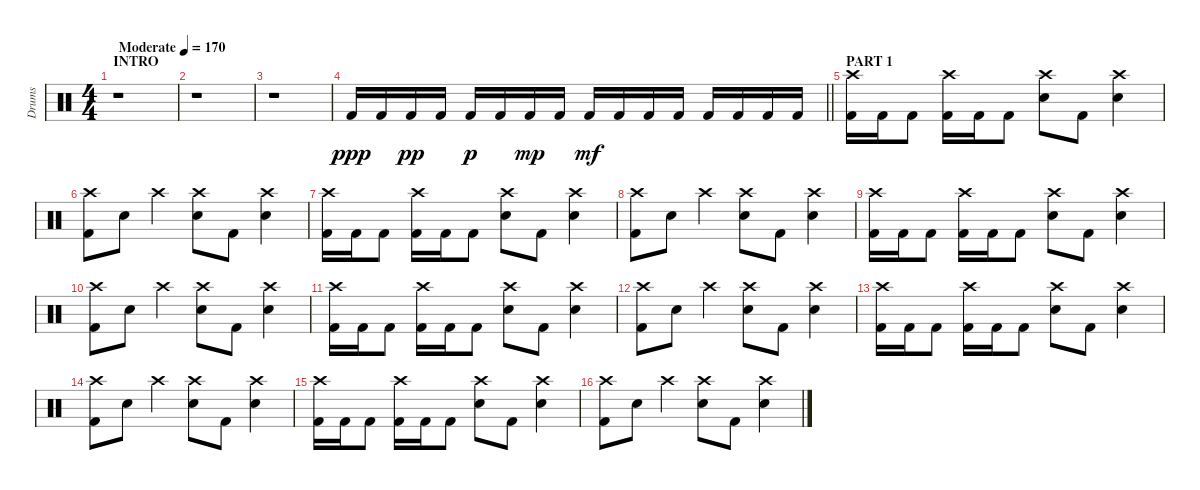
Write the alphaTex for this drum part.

\track ("Drums" "Drums") {instrument percussion}
\staff
\articulation defaults
\ts (4 4)
\section ("" "INTRO")
\tempo (170 "Moderate")
\clef neutral
\ks c
r.1{dy ppp} |
r.1 |
r.1 |
\barLineRight lightlight "Kick (hit) 2".16 "Kick (hit) 2".16 "Kick (hit) 2".16{dy pp} "Kick (hit) 2".16 "Kick (hit) 2".16{dy p} "Kick (hit) 2".16 "Kick (hit) 2".16{dy mp} "Kick (hit) 2".16 "Kick (hit) 2".16{dy mf} "Kick (hit) 2".16 "Kick (hit) 2".16 "Kick (hit) 2".16 "Kick (hit) 2".16 "Kick (hit) 2".16 "Kick (hit) 2".16 "Kick (hit) 2".16
|
\section ("" "PART 1")
("Crash high (hit)" "Kick (hit) 2").16 "Kick (hit) 2".16 "Kick (hit) 2".8 ("Crash high (hit)" "Kick (hit) 2").16 "Kick (hit) 2".16 "Kick (hit) 2".8 ("Crash high (hit)" "Electric Snare (hit)").8 "Kick (hit) 2".8 ("Crash high (hit)" "Electric Snare (hit)").4 |
("Crash high (hit)" "Kick (hit) 2").8 "Electric Snare (hit)".8 "Crash high (hit)".4 ("Crash high (hit)" "Electric Snare (hit)").8 "Kick (hit) 2".8 ("Crash high (hit)" "Electric Snare (hit)").4 |
("Crash high (hit)" "Kick (hit) 2").16 "Kick (hit) 2".16 "Kick (hit) 2".8 ("Crash high (hit)" "Kick (hit) 2").16 "Kick (hit) 2".16 "Kick (hit) 2".8 ("Crash high (hit)" "Electric Snare (hit)").8 "Kick (hit) 2".8 ("Crash high (hit)" "Electric Snare (hit)").4 |
("Crash high (hit)" "Kick (hit) 2").8 "Electric Snare (hit)".8 "Crash high (hit)".4 ("Crash high (hit)" "Electric Snare (hit)").8 "Kick (hit) 2".8 ("Crash high (hit)" "Electric Snare (hit)").4 |
("Crash high (hit)" "Kick (hit) 2").16 "Kick (hit) 2".16 "Kick (hit) 2".8 ("Crash high (hit)" "Kick (hit) 2").16 "Kick (hit) 2".16 "Kick (hit) 2".8 ("Crash high (hit)" "Electric Snare (hit)").8 "Kick (hit) 2".8 ("Crash high (hit)" "Electric Snare (hit)").4 |
("Crash high (hit)" "Kick (hit) 2").8 "Electric Snare (hit)".8 "Crash high (hit)".4 ("Crash high (hit)" "Electric Snare (hit)").8 "Kick (hit) 2".8 ("Crash high (hit)" "Electric Snare (hit)").4 |
("Crash high (hit)" "Kick (hit) 2").16 "Kick (hit) 2".16 "Kick (hit) 2".8 ("Crash high (hit)" "Kick (hit) 2").16 "Kick (hit) 2".16 "Kick (hit) 2".8 ("Crash high (hit)" "Electric Snare (hit)").8 "Kick (hit) 2".8 ("Crash high (hit)" "Electric Snare (hit)").4 |
("Crash high (hit)" "Kick (hit) 2").8 "Electric Snare (hit)".8 "Crash high (hit)".4 ("Crash high (hit)" "Electric Snare (hit)").8 "Kick (hit) 2".8 ("Crash high (hit)" "Electric Snare (hit)").4 |
("Crash high (hit)" "Kick (hit) 2").16 "Kick (hit) 2".16 "Kick (hit) 2".8 ("Crash high (hit)" "Kick (hit) 2").16 "Kick (hit) 2".16 "Kick (hit) 2".8 ("Crash high (hit)" "Electric Snare (hit)").8 "Kick (hit) 2".8 ("Crash high (hit)" "Electric Snare (hit)").4 |
("Crash high (hit)" "Kick (hit) 2").8 "Electric Snare (hit)".8 "Crash high (hit)".4 ("Crash high (hit)" "Electric Snare (hit)").8 "Kick (hit) 2".8 ("Crash high (hit)" "Electric Snare (hit)").4 |
("Crash high (hit)" "Kick (hit) 2").16 "Kick (hit) 2".16 "Kick (hit) 2".8 ("Crash high (hit)" "Kick (hit) 2").16 "Kick (hit) 2".16 "Kick (hit) 2".8 ("Crash high (hit)" "Electric Snare (hit)").8 "Kick (hit) 2".8 ("Crash high (hit)" "Electric Snare (hit)").4 |
("Crash high (hit)" "Kick (hit) 2").8 "Electric Snare (hit)".8 "Crash high (hit)".4 ("Crash high (hit)" "Electric Snare (hit)").8 "Kick (hit) 2".8 ("Crash high (hit)" "Electric Snare (hit)").4
